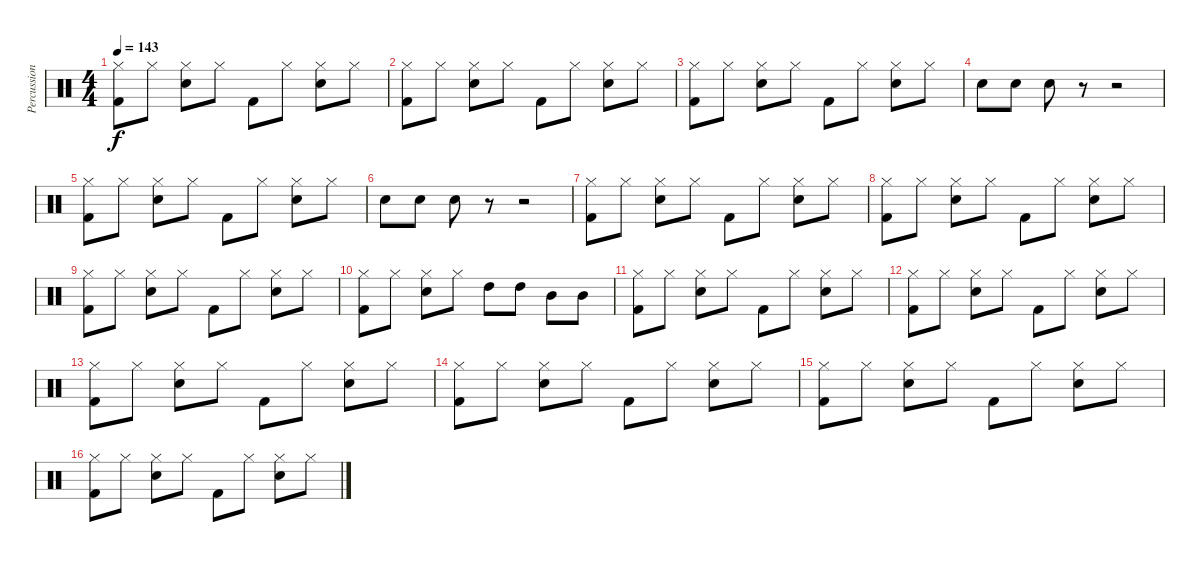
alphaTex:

\track ("Percussion" "Percussion") {instrument percussion}
\staff {score}
\articulation defaults
\ts (4 4)
\tempo 143
\clef neutral
\ks c
("Hi-Hat (closed)" "Kick (hit) 2").8{dy f} "Hi-Hat (closed)".8 ("Hi-Hat (closed)" "Electric Snare (hit)").8 "Hi-Hat (closed)".8 "Kick (hit) 2".8 "Hi-Hat (closed)".8 ("Hi-Hat (closed)" "Electric Snare (hit)").8 "Hi-Hat (closed)".8 |
("Hi-Hat (closed)" "Kick (hit) 2").8 "Hi-Hat (closed)".8 ("Hi-Hat (closed)" "Electric Snare (hit)").8 "Hi-Hat (closed)".8 "Kick (hit) 2".8 "Hi-Hat (closed)".8 ("Hi-Hat (closed)" "Electric Snare (hit)").8 "Hi-Hat (closed)".8 |
("Hi-Hat (closed)" "Kick (hit) 2").8 "Hi-Hat (closed)".8 ("Hi-Hat (closed)" "Electric Snare (hit)").8 "Hi-Hat (closed)".8 "Kick (hit) 2".8 "Hi-Hat (closed)".8 ("Hi-Hat (closed)" "Electric Snare (hit)").8 "Hi-Hat (closed)".8 |
"Electric Snare (hit)".8 "Electric Snare (hit)".8 "Electric Snare (hit)".8 r.8 r.2 |
("Hi-Hat (closed)" "Kick (hit) 2").8 "Hi-Hat (closed)".8 ("Hi-Hat (closed)" "Electric Snare (hit)").8 "Hi-Hat (closed)".8 "Kick (hit) 2".8 "Hi-Hat (closed)".8 ("Hi-Hat (closed)" "Electric Snare (hit)").8 "Hi-Hat (closed)".8 |
"Electric Snare (hit)".8 "Electric Snare (hit)".8 "Electric Snare (hit)".8 r.8 r.2 |
("Hi-Hat (closed)" "Kick (hit) 2").8 "Hi-Hat (closed)".8 ("Hi-Hat (closed)" "Electric Snare (hit)").8 "Hi-Hat (closed)".8 "Kick (hit) 2".8 "Hi-Hat (closed)".8 ("Hi-Hat (closed)" "Electric Snare (hit)").8 "Hi-Hat (closed)".8 |
("Hi-Hat (closed)" "Kick (hit) 2").8 "Hi-Hat (closed)".8 ("Hi-Hat (closed)" "Electric Snare (hit)").8 "Hi-Hat (closed)".8 "Kick (hit) 2".8 "Hi-Hat (closed)".8 ("Hi-Hat (closed)" "Electric Snare (hit)").8 "Hi-Hat (closed)".8 |
("Hi-Hat (closed)" "Kick (hit) 2").8 "Hi-Hat (closed)".8 ("Hi-Hat (closed)" "Electric Snare (hit)").8 "Hi-Hat (closed)".8 "Kick (hit) 2".8 "Hi-Hat (closed)".8 ("Hi-Hat (closed)" "Electric Snare (hit)").8 "Hi-Hat (closed)".8 |
("Hi-Hat (closed)" "Kick (hit) 2").8 "Hi-Hat (closed)".8 ("Hi-Hat (closed)" "Electric Snare (hit)").8 "Hi-Hat (closed)".8 "High Tom (hit)".8 "High Tom (hit)".8 "Mid Tom (hit)".8 "Mid Tom (hit)".8 |
("Hi-Hat (closed)" "Kick (hit) 2").8 "Hi-Hat (closed)".8 ("Hi-Hat (closed)" "Electric Snare (hit)").8 "Hi-Hat (closed)".8 "Kick (hit) 2".8 "Hi-Hat (closed)".8 ("Hi-Hat (closed)" "Electric Snare (hit)").8 "Hi-Hat (closed)".8 |
("Hi-Hat (closed)" "Kick (hit) 2").8 "Hi-Hat (closed)".8 ("Hi-Hat (closed)" "Electric Snare (hit)").8 "Hi-Hat (closed)".8 "Kick (hit) 2".8 "Hi-Hat (closed)".8 ("Hi-Hat (closed)" "Electric Snare (hit)").8 "Hi-Hat (closed)".8 |
("Hi-Hat (closed)" "Kick (hit) 2").8 "Hi-Hat (closed)".8 ("Hi-Hat (closed)" "Electric Snare (hit)").8 "Hi-Hat (closed)".8 "Kick (hit) 2".8 "Hi-Hat (closed)".8 ("Hi-Hat (closed)" "Electric Snare (hit)").8 "Hi-Hat (closed)".8 |
("Hi-Hat (closed)" "Kick (hit) 2").8 "Hi-Hat (closed)".8 ("Hi-Hat (closed)" "Electric Snare (hit)").8 "Hi-Hat (closed)".8 "Kick (hit) 2".8 "Hi-Hat (closed)".8 ("Hi-Hat (closed)" "Electric Snare (hit)").8 "Hi-Hat (closed)".8 |
("Hi-Hat (closed)" "Kick (hit) 2").8 "Hi-Hat (closed)".8 ("Hi-Hat (closed)" "Electric Snare (hit)").8 "Hi-Hat (closed)".8 "Kick (hit) 2".8 "Hi-Hat (closed)".8 ("Hi-Hat (closed)" "Electric Snare (hit)").8 "Hi-Hat (closed)".8 |
("Hi-Hat (closed)" "Kick (hit) 2").8 "Hi-Hat (closed)".8 ("Hi-Hat (closed)" "Electric Snare (hit)").8 "Hi-Hat (closed)".8 "Kick (hit) 2".8 "Hi-Hat (closed)".8 ("Hi-Hat (closed)" "Electric Snare (hit)").8 "Hi-Hat (closed)".8
